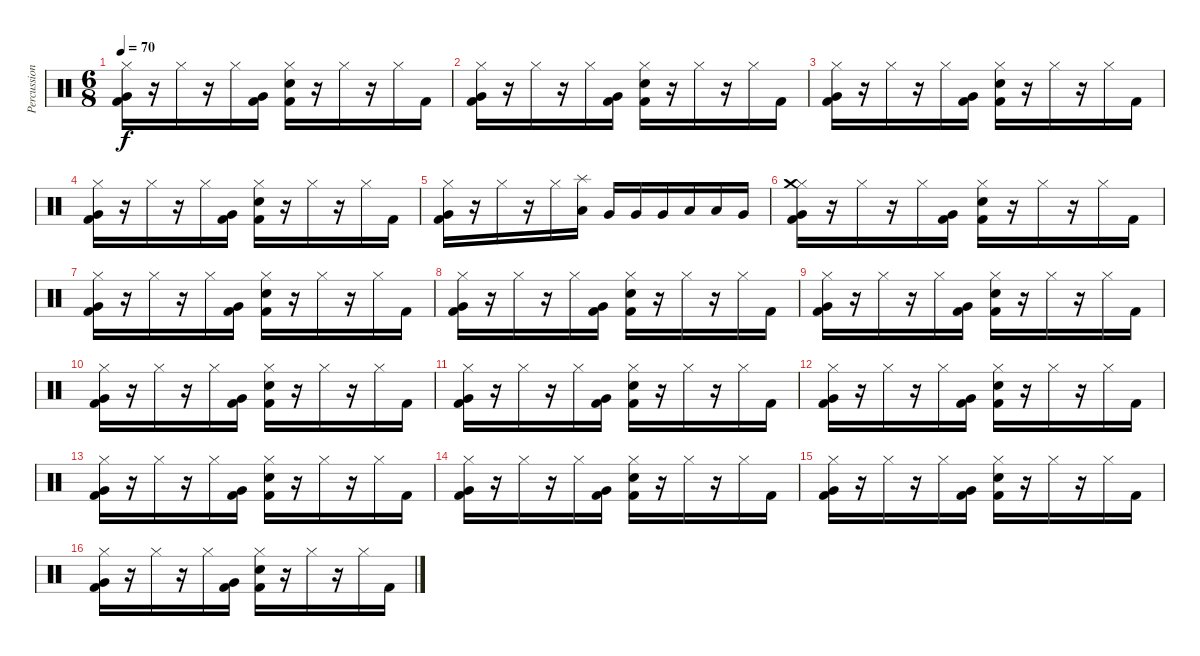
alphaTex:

\track ("Percussion" "Percussion") {instrument percussion}
\staff {score}
\articulation defaults
\ts (6 8)
\tempo 70
\clef neutral
\ks c
("Very Low Tom (hit)" "Hi-Hat (closed)" "Kick (hit) 2").16{dy f} r.16 "Hi-Hat (closed)".16 r.16 "Hi-Hat (closed)".16 ("Kick (hit) 2" "Very Low Tom (hit)").16 ("Hi-Hat (closed)" "Electric Snare (hit)" "Kick (hit) 2").16 r.16 "Hi-Hat (closed)".16 r.16 "Hi-Hat (closed)".16 "Kick (hit) 2".16 |
("Very Low Tom (hit)" "Hi-Hat (closed)" "Kick (hit) 2").16 r.16 "Hi-Hat (closed)".16 r.16 "Hi-Hat (closed)".16 ("Kick (hit) 2" "Very Low Tom (hit)").16 ("Hi-Hat (closed)" "Electric Snare (hit)" "Kick (hit) 2").16 r.16 "Hi-Hat (closed)".16 r.16 "Hi-Hat (closed)".16 "Kick (hit) 2".16 |
("Very Low Tom (hit)" "Hi-Hat (closed)" "Kick (hit) 2").16 r.16 "Hi-Hat (closed)".16 r.16 "Hi-Hat (closed)".16 ("Kick (hit) 2" "Very Low Tom (hit)").16 ("Hi-Hat (closed)" "Electric Snare (hit)" "Kick (hit) 2").16 r.16 "Hi-Hat (closed)".16 r.16 "Hi-Hat (closed)".16 "Kick (hit) 2".16 |
("Very Low Tom (hit)" "Hi-Hat (closed)" "Kick (hit) 2").16 r.16 "Hi-Hat (closed)".16 r.16 "Hi-Hat (closed)".16 ("Kick (hit) 2" "Very Low Tom (hit)").16 ("Hi-Hat (closed)" "Electric Snare (hit)" "Kick (hit) 2").16 r.16 "Hi-Hat (closed)".16 r.16 "Hi-Hat (closed)".16 "Kick (hit) 2".16 |
("Very Low Tom (hit)" "Hi-Hat (closed)" "Kick (hit) 2").16 r.16 "Hi-Hat (closed)".16 r.16 "Hi-Hat (closed)".16 ("Splash (hit)" "Low Floor Tom (hit)").16 "Very Low Tom (hit)".16 "Very Low Tom (hit)".16 "Very Low Tom (hit)".16 "Low Floor Tom (hit)".16 "Low Floor Tom (hit)".16 "Very Low Tom (hit)".16 |
("Very Low Tom (hit)" "Hi-Hat (closed)" "Crash medium (hit)" "Kick (hit) 2").16 r.16 "Hi-Hat (closed)".16 r.16 "Hi-Hat (closed)".16 ("Kick (hit) 2" "Very Low Tom (hit)").16 ("Hi-Hat (closed)" "Electric Snare (hit)" "Kick (hit) 2").16 r.16 "Hi-Hat (closed)".16 r.16 "Hi-Hat (closed)".16 "Kick (hit) 2".16 |
("Very Low Tom (hit)" "Hi-Hat (closed)" "Kick (hit) 2").16 r.16 "Hi-Hat (closed)".16 r.16 "Hi-Hat (closed)".16 ("Kick (hit) 2" "Very Low Tom (hit)").16 ("Hi-Hat (closed)" "Electric Snare (hit)" "Kick (hit) 2").16 r.16 "Hi-Hat (closed)".16 r.16 "Hi-Hat (closed)".16 "Kick (hit) 2".16 |
("Very Low Tom (hit)" "Hi-Hat (closed)" "Kick (hit) 2").16 r.16 "Hi-Hat (closed)".16 r.16 "Hi-Hat (closed)".16 ("Kick (hit) 2" "Very Low Tom (hit)").16 ("Hi-Hat (closed)" "Electric Snare (hit)" "Kick (hit) 2").16 r.16 "Hi-Hat (closed)".16 r.16 "Hi-Hat (closed)".16 "Kick (hit) 2".16 |
("Very Low Tom (hit)" "Hi-Hat (closed)" "Kick (hit) 2").16 r.16 "Hi-Hat (closed)".16 r.16 "Hi-Hat (closed)".16 ("Kick (hit) 2" "Very Low Tom (hit)").16 ("Hi-Hat (closed)" "Electric Snare (hit)" "Kick (hit) 2").16 r.16 "Hi-Hat (closed)".16 r.16 "Hi-Hat (closed)".16 "Kick (hit) 2".16 |
("Very Low Tom (hit)" "Hi-Hat (closed)" "Kick (hit) 2").16 r.16 "Hi-Hat (closed)".16 r.16 "Hi-Hat (closed)".16 ("Kick (hit) 2" "Very Low Tom (hit)").16 ("Hi-Hat (closed)" "Electric Snare (hit)" "Kick (hit) 2").16 r.16 "Hi-Hat (closed)".16 r.16 "Hi-Hat (closed)".16 "Kick (hit) 2".16 |
("Very Low Tom (hit)" "Hi-Hat (closed)" "Kick (hit) 2").16 r.16 "Hi-Hat (closed)".16 r.16 "Hi-Hat (closed)".16 ("Kick (hit) 2" "Very Low Tom (hit)").16 ("Hi-Hat (closed)" "Electric Snare (hit)" "Kick (hit) 2").16 r.16 "Hi-Hat (closed)".16 r.16 "Hi-Hat (closed)".16 "Kick (hit) 2".16 |
("Very Low Tom (hit)" "Hi-Hat (closed)" "Kick (hit) 2").16 r.16 "Hi-Hat (closed)".16 r.16 "Hi-Hat (closed)".16 ("Kick (hit) 2" "Very Low Tom (hit)").16 ("Hi-Hat (closed)" "Electric Snare (hit)" "Kick (hit) 2").16 r.16 "Hi-Hat (closed)".16 r.16 "Hi-Hat (closed)".16 "Kick (hit) 2".16 |
("Very Low Tom (hit)" "Hi-Hat (closed)" "Kick (hit) 2").16 r.16 "Hi-Hat (closed)".16 r.16 "Hi-Hat (closed)".16 ("Kick (hit) 2" "Very Low Tom (hit)").16 ("Hi-Hat (closed)" "Electric Snare (hit)" "Kick (hit) 2").16 r.16 "Hi-Hat (closed)".16 r.16 "Hi-Hat (closed)".16 "Kick (hit) 2".16 |
("Very Low Tom (hit)" "Hi-Hat (closed)" "Kick (hit) 2").16 r.16 "Hi-Hat (closed)".16 r.16 "Hi-Hat (closed)".16 ("Kick (hit) 2" "Very Low Tom (hit)").16 ("Hi-Hat (closed)" "Electric Snare (hit)" "Kick (hit) 2").16 r.16 "Hi-Hat (closed)".16 r.16 "Hi-Hat (closed)".16 "Kick (hit) 2".16 |
("Very Low Tom (hit)" "Hi-Hat (closed)" "Kick (hit) 2").16 r.16 "Hi-Hat (closed)".16 r.16 "Hi-Hat (closed)".16 ("Kick (hit) 2" "Very Low Tom (hit)").16 ("Hi-Hat (closed)" "Electric Snare (hit)" "Kick (hit) 2").16 r.16 "Hi-Hat (closed)".16 r.16 "Hi-Hat (closed)".16 "Kick (hit) 2".16 |
("Very Low Tom (hit)" "Hi-Hat (closed)" "Kick (hit) 2").16 r.16 "Hi-Hat (closed)".16 r.16 "Hi-Hat (closed)".16 ("Kick (hit) 2" "Very Low Tom (hit)").16 ("Hi-Hat (closed)" "Electric Snare (hit)" "Kick (hit) 2").16 r.16 "Hi-Hat (closed)".16 r.16 "Hi-Hat (closed)".16 "Kick (hit) 2".16
